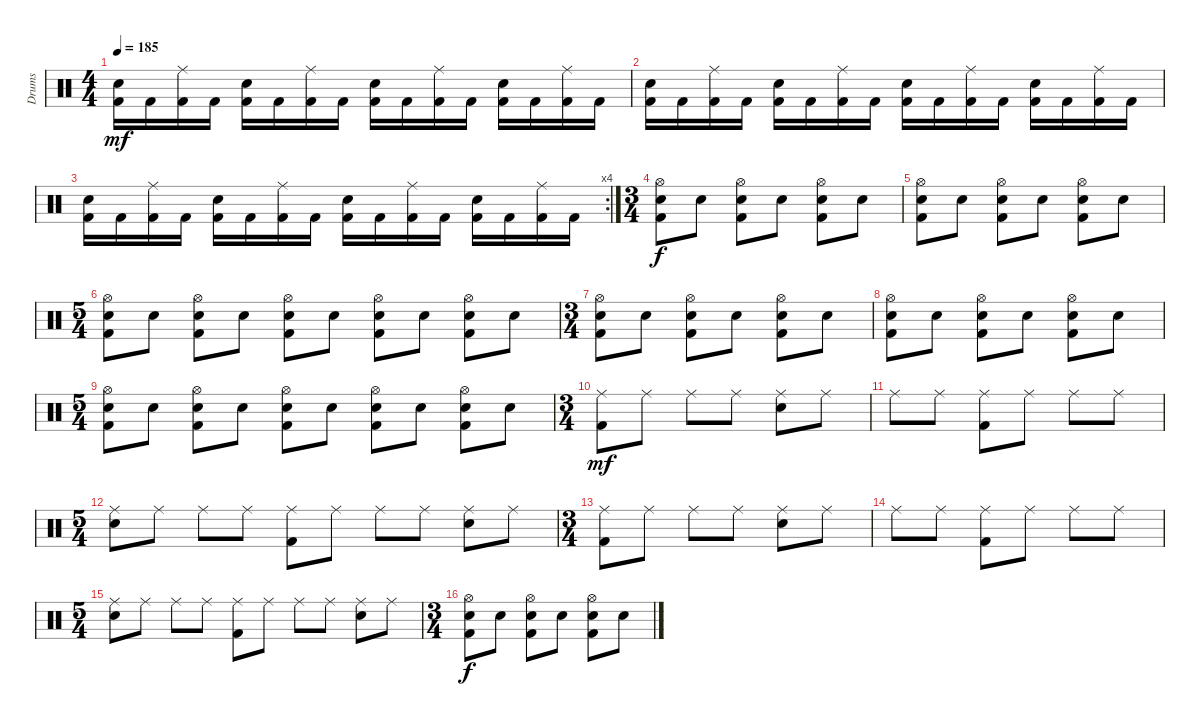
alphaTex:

\track ("Drums" "Drums") {instrument percussion}
\staff {score}
\articulation defaults
\ts (4 4)
\tempo 185
\clef neutral
\ks c
("Electric Snare (hit)" "Kick (hit) 2").16{dy mf} "Kick (hit) 2".16 ("Ride (middle)" "Kick (hit) 2").16 "Kick (hit) 2".16 ("Electric Snare (hit)" "Kick (hit) 2").16 "Kick (hit) 2".16 ("Ride (middle)" "Kick (hit) 2").16 "Kick (hit) 2".16 ("Electric Snare (hit)" "Kick (hit) 2").16 "Kick (hit) 2".16 ("Ride (middle)" "Kick (hit) 2").16 "Kick (hit) 2".16 ("Electric Snare (hit)" "Kick (hit) 2").16 "Kick (hit) 2".16 ("Ride (middle)" "Kick (hit) 2").16 "Kick (hit) 2".16 |
("Electric Snare (hit)" "Kick (hit) 2").16 "Kick (hit) 2".16 ("Ride (middle)" "Kick (hit) 2").16 "Kick (hit) 2".16 ("Electric Snare (hit)" "Kick (hit) 2").16 "Kick (hit) 2".16 ("Ride (middle)" "Kick (hit) 2").16 "Kick (hit) 2".16 ("Electric Snare (hit)" "Kick (hit) 2").16 "Kick (hit) 2".16 ("Ride (middle)" "Kick (hit) 2").16 "Kick (hit) 2".16 ("Electric Snare (hit)" "Kick (hit) 2").16 "Kick (hit) 2".16 ("Ride (middle)" "Kick (hit) 2").16 "Kick (hit) 2".16 |
\rc 4
("Electric Snare (hit)" "Kick (hit) 2").16 "Kick (hit) 2".16 ("Ride (middle)" "Kick (hit) 2").16 "Kick (hit) 2".16 ("Electric Snare (hit)" "Kick (hit) 2").16 "Kick (hit) 2".16 ("Ride (middle)" "Kick (hit) 2").16 "Kick (hit) 2".16 ("Electric Snare (hit)" "Kick (hit) 2").16 "Kick (hit) 2".16 ("Ride (middle)" "Kick (hit) 2").16 "Kick (hit) 2".16 ("Electric Snare (hit)" "Kick (hit) 2").16 "Kick (hit) 2".16 ("Ride (middle)" "Kick (hit) 2").16 "Kick (hit) 2".16 |
\ts (3 4)
("Hi-Hat (open)" "Electric Snare (hit)" "Kick (hit) 2").8{dy f} "Electric Snare (hit)".8 ("Hi-Hat (open)" "Electric Snare (hit)" "Kick (hit) 2").8 "Electric Snare (hit)".8 ("Hi-Hat (open)" "Electric Snare (hit)" "Kick (hit) 2").8 "Electric Snare (hit)".8 |
("Hi-Hat (open)" "Electric Snare (hit)" "Kick (hit) 2").8 "Electric Snare (hit)".8 ("Hi-Hat (open)" "Electric Snare (hit)" "Kick (hit) 2").8 "Electric Snare (hit)".8 ("Hi-Hat (open)" "Electric Snare (hit)" "Kick (hit) 2").8 "Electric Snare (hit)".8 |
\ts (5 4)
("Hi-Hat (open)" "Electric Snare (hit)" "Kick (hit) 2").8 "Electric Snare (hit)".8 ("Hi-Hat (open)" "Electric Snare (hit)" "Kick (hit) 2").8 "Electric Snare (hit)".8 ("Hi-Hat (open)" "Electric Snare (hit)" "Kick (hit) 2").8 "Electric Snare (hit)".8 ("Hi-Hat (open)" "Electric Snare (hit)" "Kick (hit) 2").8 "Electric Snare (hit)".8 ("Hi-Hat (open)" "Electric Snare (hit)" "Kick (hit) 2").8 "Electric Snare (hit)".8 |
\ts (3 4)
("Hi-Hat (open)" "Electric Snare (hit)" "Kick (hit) 2").8 "Electric Snare (hit)".8 ("Hi-Hat (open)" "Electric Snare (hit)" "Kick (hit) 2").8 "Electric Snare (hit)".8 ("Hi-Hat (open)" "Electric Snare (hit)" "Kick (hit) 2").8 "Electric Snare (hit)".8 |
("Hi-Hat (open)" "Electric Snare (hit)" "Kick (hit) 2").8 "Electric Snare (hit)".8 ("Hi-Hat (open)" "Electric Snare (hit)" "Kick (hit) 2").8 "Electric Snare (hit)".8 ("Hi-Hat (open)" "Electric Snare (hit)" "Kick (hit) 2").8 "Electric Snare (hit)".8 |
\ts (5 4)
("Hi-Hat (open)" "Electric Snare (hit)" "Kick (hit) 2").8 "Electric Snare (hit)".8 ("Hi-Hat (open)" "Electric Snare (hit)" "Kick (hit) 2").8 "Electric Snare (hit)".8 ("Hi-Hat (open)" "Electric Snare (hit)" "Kick (hit) 2").8 "Electric Snare (hit)".8 ("Hi-Hat (open)" "Electric Snare (hit)" "Kick (hit) 2").8 "Electric Snare (hit)".8 ("Hi-Hat (open)" "Electric Snare (hit)" "Kick (hit) 2").8 "Electric Snare (hit)".8 |
\ts (3 4)
("Ride (middle)" "Kick (hit) 2").8{dy mf} "Ride (middle)".8 "Ride (middle)".8 "Ride (middle)".8 ("Ride (middle)" "Electric Snare (hit)").8 "Ride (middle)".8 |
"Ride (middle)".8 "Ride (middle)".8 ("Ride (middle)" "Kick (hit) 2").8 "Ride (middle)".8 "Ride (middle)".8 "Ride (middle)".8 |
\ts (5 4)
("Ride (middle)" "Electric Snare (hit)").8 "Ride (middle)".8 "Ride (middle)".8 "Ride (middle)".8 ("Ride (middle)" "Kick (hit) 2").8 "Ride (middle)".8 "Ride (middle)".8 "Ride (middle)".8 ("Ride (middle)" "Electric Snare (hit)").8 "Ride (middle)".8 |
\ts (3 4)
("Ride (middle)" "Kick (hit) 2").8 "Ride (middle)".8 "Ride (middle)".8 "Ride (middle)".8 ("Ride (middle)" "Electric Snare (hit)").8 "Ride (middle)".8 |
"Ride (middle)".8 "Ride (middle)".8 ("Ride (middle)" "Kick (hit) 2").8 "Ride (middle)".8 "Ride (middle)".8 "Ride (middle)".8 |
\ts (5 4)
("Ride (middle)" "Electric Snare (hit)").8 "Ride (middle)".8 "Ride (middle)".8 "Ride (middle)".8 ("Ride (middle)" "Kick (hit) 2").8 "Ride (middle)".8 "Ride (middle)".8 "Ride (middle)".8 ("Ride (middle)" "Electric Snare (hit)").8 "Ride (middle)".8 |
\ts (3 4)
("Hi-Hat (open)" "Electric Snare (hit)" "Kick (hit) 2").8{dy f} "Electric Snare (hit)".8 ("Hi-Hat (open)" "Electric Snare (hit)" "Kick (hit) 2").8 "Electric Snare (hit)".8 ("Hi-Hat (open)" "Electric Snare (hit)" "Kick (hit) 2").8 "Electric Snare (hit)".8
